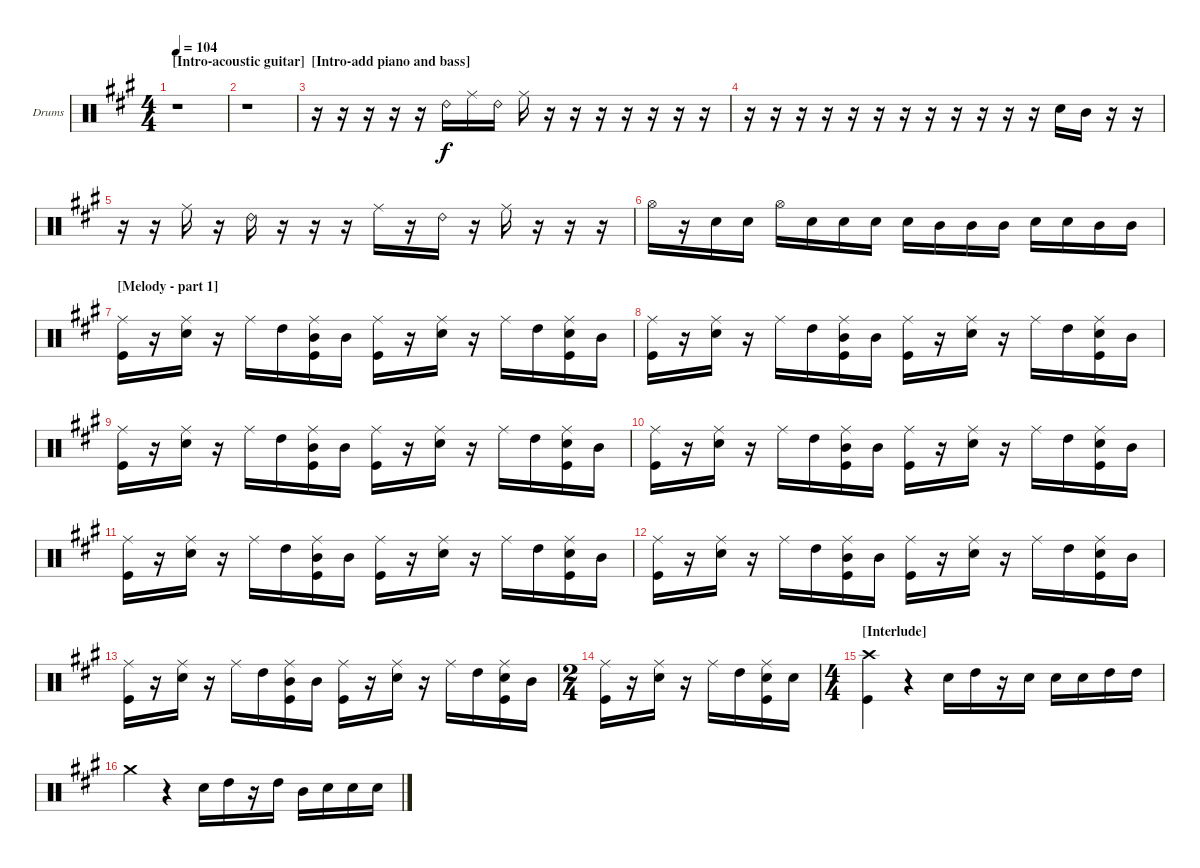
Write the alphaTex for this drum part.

\bracketExtendMode groupsimilarinstruments
\firstSystemTrackNameOrientation horizontal
\otherSystemsTrackNameOrientation horizontal
\track ("Drumkit" "Drums") {instrument percussion}
\staff {score}
\articulation defaults
\ts (4 4)
\beaming (8 2 2 2 2)
\section ("" "[Intro-acoustic guitar]")
\tempo 104
\clef neutral
\ks a
r.1{dy f} |
r.1 |
\section ("" "[Intro-add piano and bass]")
r.16 r.16 r.16 r.16 r.16 "Ride (bell) 2".16 "Ride (middle)".16 "Ride (bell) 2".16 "Ride (middle)".16 r.16 r.16 r.16 r.16 r.16 r.16 r.16 |
r.16 r.16 r.16 r.16 r.16 r.16 r.16 r.16 r.16 r.16 r.16 r.16 "Snare (hit) 2".16 "Mid Tom (hit)".16 r.16 r.16 |
r.16 r.16 "Ride (middle)".16 r.16 "Ride (bell) 2".16 r.16 r.16 r.16 "Ride (middle)".16 r.16 "Ride (bell) 2".16 r.16 "Ride (middle)".16 r.16 r.16 r.16 |
"Hi-Hat (open)".16 r.16 "Snare (hit) 2".16 "Snare (hit) 2".16 "Hi-Hat (open)".16 "Snare (hit) 2".16 "Snare (hit) 2".16 "Snare (hit) 2".16 "Snare (hit) 2".16 "Mid Tom (hit)".16 "Mid Tom (hit)".16 "Mid Tom (hit)".16 "Snare (hit) 2".16 "Snare (hit) 2".16 "Mid Tom (hit)".16 "Mid Tom (hit)".16 |
\section ("" "[Melody - part 1]")
("Ride (middle)" "Kick (hit)").16 r.16 ("Ride (middle)" "Snare (hit) 2").16 r.16 "Ride (middle)".16 "High Tom (hit)".16 ("Ride (middle)" "Mid Tom (hit)" "Kick (hit)").16 "Mid Tom (hit)".16 ("Ride (middle)" "Kick (hit)").16 r.16 ("Ride (middle)" "Snare (hit) 2").16 r.16 "Ride (middle)".16 "High Tom (hit)".16 ("Ride (middle)" "Snare (hit) 2" "Kick (hit)").16 "Mid Tom (hit)".16 |
("Ride (middle)" "Kick (hit)").16 r.16 ("Ride (middle)" "Snare (hit) 2").16 r.16 "Ride (middle)".16 "High Tom (hit)".16 ("Ride (middle)" "Mid Tom (hit)" "Kick (hit)").16 "Mid Tom (hit)".16 ("Ride (middle)" "Kick (hit)").16 r.16 ("Ride (middle)" "Snare (hit) 2").16 r.16 "Ride (middle)".16 "High Tom (hit)".16 ("Ride (middle)" "Snare (hit) 2" "Kick (hit)").16 "Mid Tom (hit)".16 |
("Ride (middle)" "Kick (hit)").16 r.16 ("Ride (middle)" "Snare (hit) 2").16 r.16 "Ride (middle)".16 "High Tom (hit)".16 ("Ride (middle)" "Mid Tom (hit)" "Kick (hit)").16 "Mid Tom (hit)".16 ("Ride (middle)" "Kick (hit)").16 r.16 ("Ride (middle)" "Snare (hit) 2").16 r.16 "Ride (middle)".16 "High Tom (hit)".16 ("Ride (middle)" "Snare (hit) 2" "Kick (hit)").16 "Mid Tom (hit)".16 |
("Ride (middle)" "Kick (hit)").16 r.16 ("Ride (middle)" "Snare (hit) 2").16 r.16 "Ride (middle)".16 "High Tom (hit)".16 ("Ride (middle)" "Mid Tom (hit)" "Kick (hit)").16 "Mid Tom (hit)".16 ("Ride (middle)" "Kick (hit)").16 r.16 ("Ride (middle)" "Snare (hit) 2").16 r.16 "Ride (middle)".16 "High Tom (hit)".16 ("Ride (middle)" "Snare (hit) 2" "Kick (hit)").16 "Mid Tom (hit)".16 |
("Ride (middle)" "Kick (hit)").16 r.16 ("Ride (middle)" "Snare (hit) 2").16 r.16 "Ride (middle)".16 "High Tom (hit)".16 ("Ride (middle)" "Mid Tom (hit)" "Kick (hit)").16 "Mid Tom (hit)".16 ("Ride (middle)" "Kick (hit)").16 r.16 ("Ride (middle)" "Snare (hit) 2").16 r.16 "Ride (middle)".16 "High Tom (hit)".16 ("Ride (middle)" "Snare (hit) 2" "Kick (hit)").16 "Mid Tom (hit)".16 |
("Ride (middle)" "Kick (hit)").16 r.16 ("Ride (middle)" "Snare (hit) 2").16 r.16 "Ride (middle)".16 "High Tom (hit)".16 ("Ride (middle)" "Mid Tom (hit)" "Kick (hit)").16 "Mid Tom (hit)".16 ("Ride (middle)" "Kick (hit)").16 r.16 ("Ride (middle)" "Snare (hit) 2").16 r.16 "Ride (middle)".16 "High Tom (hit)".16 ("Ride (middle)" "Snare (hit) 2" "Kick (hit)").16 "Mid Tom (hit)".16 |
("Ride (middle)" "Kick (hit)").16 r.16 ("Ride (middle)" "Snare (hit) 2").16 r.16 "Ride (middle)".16 "High Tom (hit)".16 ("Ride (middle)" "Mid Tom (hit)" "Kick (hit)").16 "Mid Tom (hit)".16 ("Ride (middle)" "Kick (hit)").16 r.16 ("Ride (middle)" "Snare (hit) 2").16 r.16 "Ride (middle)".16 "High Tom (hit)".16 ("Ride (middle)" "Snare (hit) 2" "Kick (hit)").16 "Mid Tom (hit)".16 |
\ts (2 4)
("Ride (middle)" "Kick (hit)").16 r.16 ("Ride (middle)" "Snare (hit) 2").16 r.16 "Ride (middle)".16 "High Tom (hit)".16 ("Ride (middle)" "Snare (hit) 2" "Kick (hit)").16 "Snare (hit) 2".16 |
\ts (4 4)
\section ("" "[Interlude] ")
("Crash high (hit)" "Kick (hit)").4 r.4 "Snare (hit) 2".16 "High Tom (hit)".16 r.16 "Snare (hit) 2".16 "Snare (hit) 2".16 "Snare (hit) 2".16 "High Tom (hit)".16 "High Tom (hit)".16 |
"Crash medium (hit)".4 r.4 "Snare (hit) 2".16 "High Tom (hit)".16 r.16 "High Tom (hit)".16 "Mid Tom (hit)".16 "Snare (hit) 2".16 "Snare (hit) 2".16 "Snare (hit) 2".16
